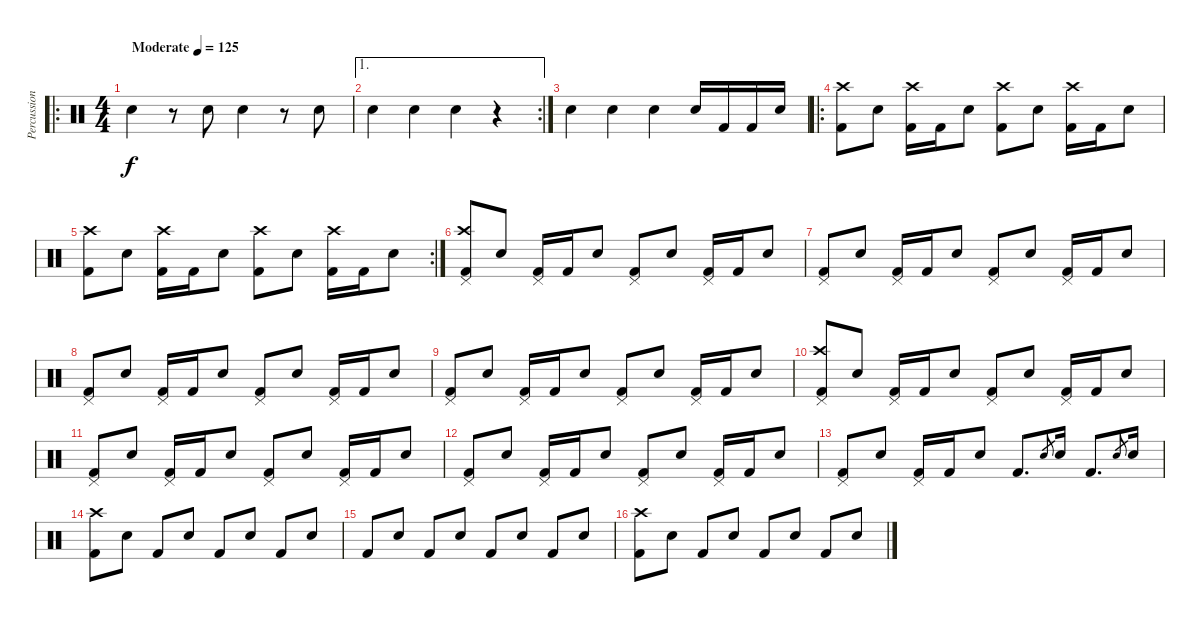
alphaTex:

\track ("Percussion" "Percussion") {instrument percussion}
\staff {score}
\articulation defaults
\ro
\ts (4 4)
\tempo (125 "Moderate")
\clef neutral
\ks c "Electric Snare (hit)".4{dy f}
r.8 "Electric Snare (hit)".8 "Electric Snare (hit)".4 r.8 "Electric Snare (hit)".8 |
\ae 1
\rc 2 "Electric Snare (hit)".4 "Electric Snare (hit)".4 "Electric Snare (hit)".4
r.4 |
"Electric Snare (hit)".4 "Electric Snare (hit)".4 "Electric Snare (hit)".4 "Electric Snare (hit)".16 "Kick (hit) 2".16 "Kick (hit) 2".16 "Electric Snare (hit)".16 |
\ro
("Crash high (hit)" "Kick (hit) 2").8 "Electric Snare (hit)".8 ("Crash high (hit)" "Kick (hit) 2").16 "Kick (hit) 2".16 "Electric Snare (hit)".8 ("Crash high (hit)" "Kick (hit) 2").8 "Electric Snare (hit)".8 ("Crash high (hit)" "Kick (hit) 2").16 "Kick (hit) 2".16 "Electric Snare (hit)".8 |
\rc 2
("Crash high (hit)" "Kick (hit) 2").8 "Electric Snare (hit)".8 ("Crash high (hit)" "Kick (hit) 2").16 "Kick (hit) 2".16 "Electric Snare (hit)".8 ("Crash high (hit)" "Kick (hit) 2").8 "Electric Snare (hit)".8 ("Crash high (hit)" "Kick (hit) 2").16 "Kick (hit) 2".16 "Electric Snare (hit)".8 |
("Crash high (hit)" "Pedal Hi-Hat (hit)" "Kick (hit) 2").8 "Electric Snare (hit)".8 ("Pedal Hi-Hat (hit)" "Kick (hit) 2").16 "Kick (hit) 2".16 "Electric Snare (hit)".8 ("Pedal Hi-Hat (hit)" "Kick (hit) 2").8 "Electric Snare (hit)".8 ("Pedal Hi-Hat (hit)" "Kick (hit) 2").16 "Kick (hit) 2".16 "Electric Snare (hit)".8 |
("Pedal Hi-Hat (hit)" "Kick (hit) 2").8 "Electric Snare (hit)".8 ("Pedal Hi-Hat (hit)" "Kick (hit) 2").16 "Kick (hit) 2".16 "Electric Snare (hit)".8 ("Pedal Hi-Hat (hit)" "Kick (hit) 2").8 "Electric Snare (hit)".8 ("Pedal Hi-Hat (hit)" "Kick (hit) 2").16 "Kick (hit) 2".16 "Electric Snare (hit)".8 |
("Pedal Hi-Hat (hit)" "Kick (hit) 2").8 "Electric Snare (hit)".8 ("Pedal Hi-Hat (hit)" "Kick (hit) 2").16 "Kick (hit) 2".16 "Electric Snare (hit)".8 ("Pedal Hi-Hat (hit)" "Kick (hit) 2").8 "Electric Snare (hit)".8 ("Pedal Hi-Hat (hit)" "Kick (hit) 2").16 "Kick (hit) 2".16 "Electric Snare (hit)".8 |
("Pedal Hi-Hat (hit)" "Kick (hit) 2").8 "Electric Snare (hit)".8 ("Pedal Hi-Hat (hit)" "Kick (hit) 2").16 "Kick (hit) 2".16 "Electric Snare (hit)".8 ("Pedal Hi-Hat (hit)" "Kick (hit) 2").8 "Electric Snare (hit)".8 ("Pedal Hi-Hat (hit)" "Kick (hit) 2").16 "Kick (hit) 2".16 "Electric Snare (hit)".8 |
("Crash high (hit)" "Pedal Hi-Hat (hit)" "Kick (hit) 2").8 "Electric Snare (hit)".8 ("Pedal Hi-Hat (hit)" "Kick (hit) 2").16 "Kick (hit) 2".16 "Electric Snare (hit)".8 ("Pedal Hi-Hat (hit)" "Kick (hit) 2").8 "Electric Snare (hit)".8 ("Pedal Hi-Hat (hit)" "Kick (hit) 2").16 "Kick (hit) 2".16 "Electric Snare (hit)".8 |
("Pedal Hi-Hat (hit)" "Kick (hit) 2").8 "Electric Snare (hit)".8 ("Pedal Hi-Hat (hit)" "Kick (hit) 2").16 "Kick (hit) 2".16 "Electric Snare (hit)".8 ("Pedal Hi-Hat (hit)" "Kick (hit) 2").8 "Electric Snare (hit)".8 ("Pedal Hi-Hat (hit)" "Kick (hit) 2").16 "Kick (hit) 2".16 "Electric Snare (hit)".8 |
("Pedal Hi-Hat (hit)" "Kick (hit) 2").8 "Electric Snare (hit)".8 ("Pedal Hi-Hat (hit)" "Kick (hit) 2").16 "Kick (hit) 2".16 "Electric Snare (hit)".8 ("Pedal Hi-Hat (hit)" "Kick (hit) 2").8 "Electric Snare (hit)".8 ("Pedal Hi-Hat (hit)" "Kick (hit) 2").16 "Kick (hit) 2".16 "Electric Snare (hit)".8 |
("Pedal Hi-Hat (hit)" "Kick (hit) 2").8 "Electric Snare (hit)".8 ("Pedal Hi-Hat (hit)" "Kick (hit) 2").16 "Kick (hit) 2".16 "Electric Snare (hit)".8 "Kick (hit) 2".8{d} "Electric Snare (hit)".8{gr} "Electric Snare (hit)".16 "Kick (hit) 2".8{d} "Electric Snare (hit)".8{gr} "Electric Snare (hit)".16 |
("Crash high (hit)" "Kick (hit) 2").8 "Electric Snare (hit)".8 "Kick (hit) 2".8 "Electric Snare (hit)".8 "Kick (hit) 2".8 "Electric Snare (hit)".8 "Kick (hit) 2".8 "Electric Snare (hit)".8 |
"Kick (hit) 2".8 "Electric Snare (hit)".8 "Kick (hit) 2".8 "Electric Snare (hit)".8 "Kick (hit) 2".8 "Electric Snare (hit)".8 "Kick (hit) 2".8 "Electric Snare (hit)".8 |
("Crash high (hit)" "Kick (hit) 2").8 "Electric Snare (hit)".8 "Kick (hit) 2".8 "Electric Snare (hit)".8 "Kick (hit) 2".8 "Electric Snare (hit)".8 "Kick (hit) 2".8 "Electric Snare (hit)".8
